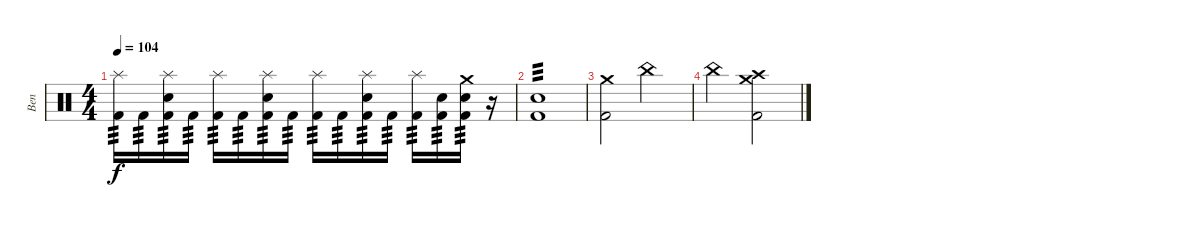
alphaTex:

\track ("Ben" "Ben") {instrument percussion}
\staff {score}
\articulation defaults
\ts (4 4)
\tempo 104
\clef neutral
\ks c
("Splash (hit)" "Kick (hit) 2").16{tp 3 dy f} "Kick (hit) 2".16{tp 3} ("Splash (hit)" "Snare (hit) 2" "Kick (hit) 2").16{tp 3} "Kick (hit) 2".16{tp 3} ("Splash (hit)" "Kick (hit) 2").16{tp 3} "Kick (hit) 2".16{tp 3} ("Splash (hit)" "Snare (hit) 2" "Kick (hit) 2").16{tp 3} "Kick (hit) 2".16{tp 3} ("Splash (hit)" "Kick (hit) 2").16{tp 3} "Kick (hit) 2".16{tp 3} ("Splash (hit)" "Snare (hit) 2" "Kick (hit) 2").16{tp 3} "Kick (hit) 2".16{tp 3} ("Splash (hit)" "Kick (hit) 2").16{tp 3} ("Snare (hit) 2" "Kick (hit) 2").16{tp 3} ("Crash medium (hit)" "Snare (hit) 2" "Kick (hit) 2").16{tp 3} r.16 |
("Snare (hit) 2" "Kick (hit) 2").1{tp 3} |
("Crash medium (hit)" "Kick (hit) 2").2 "China (hit)".2 |
"China (hit)".2 ("Crash high (hit)" "Crash medium (hit)" "Kick (hit) 2").2
